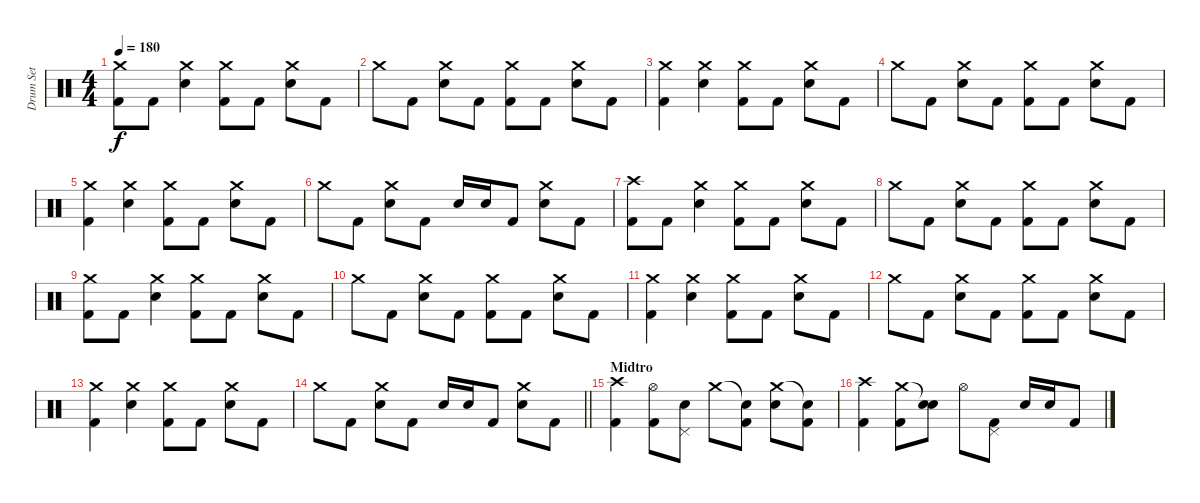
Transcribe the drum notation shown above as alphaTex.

\track ("Drum Set" "Drum Set") {instrument percussion}
\staff {score}
\articulation defaults
\ts (4 4)
\tempo 180
\clef neutral
\ks c
("Crash medium (hit)" "Kick (hit) 2").8{dy f} "Kick (hit) 2".8 ("Crash medium (hit)" "Electric Snare (hit)").4 ("Crash medium (hit)" "Kick (hit) 2").8 "Kick (hit) 2".8 ("Crash medium (hit)" "Electric Snare (hit)").8 "Kick (hit) 2".8 |
"Crash medium (hit)".8 "Kick (hit) 2".8 ("Crash medium (hit)" "Electric Snare (hit)").8 "Kick (hit) 2".8 ("Crash medium (hit)" "Kick (hit) 2").8 "Kick (hit) 2".8 ("Crash medium (hit)" "Electric Snare (hit)").8 "Kick (hit) 2".8 |
("Crash medium (hit)" "Kick (hit) 2").4 ("Crash medium (hit)" "Electric Snare (hit)").4 ("Crash medium (hit)" "Kick (hit) 2").8 "Kick (hit) 2".8 ("Crash medium (hit)" "Electric Snare (hit)").8 "Kick (hit) 2".8 |
"Crash medium (hit)".8 "Kick (hit) 2".8 ("Crash medium (hit)" "Electric Snare (hit)").8 "Kick (hit) 2".8 ("Crash medium (hit)" "Kick (hit) 2").8 "Kick (hit) 2".8 ("Crash medium (hit)" "Electric Snare (hit)").8 "Kick (hit) 2".8 |
("Crash medium (hit)" "Kick (hit) 2").4 ("Crash medium (hit)" "Electric Snare (hit)").4 ("Crash medium (hit)" "Kick (hit) 2").8 "Kick (hit) 2".8 ("Crash medium (hit)" "Electric Snare (hit)").8 "Kick (hit) 2".8 |
"Crash medium (hit)".8 "Kick (hit) 2".8 ("Crash medium (hit)" "Electric Snare (hit)").8 "Kick (hit) 2".8 "Electric Snare (hit)".16 "Electric Snare (hit)".16 "Kick (hit) 2".8 ("Crash medium (hit)" "Electric Snare (hit)").8 "Kick (hit) 2".8 |
("Crash high (hit)" "Kick (hit) 2").8 "Kick (hit) 2".8 ("Crash medium (hit)" "Electric Snare (hit)").4 ("Crash medium (hit)" "Kick (hit) 2").8 "Kick (hit) 2".8 ("Crash medium (hit)" "Electric Snare (hit)").8 "Kick (hit) 2".8 |
"Crash medium (hit)".8 "Kick (hit) 2".8 ("Crash medium (hit)" "Electric Snare (hit)").8 "Kick (hit) 2".8 ("Crash medium (hit)" "Kick (hit) 2").8 "Kick (hit) 2".8 ("Crash medium (hit)" "Electric Snare (hit)").8 "Kick (hit) 2".8 |
("Crash medium (hit)" "Kick (hit) 2").8 "Kick (hit) 2".8 ("Crash medium (hit)" "Electric Snare (hit)").4 ("Crash medium (hit)" "Kick (hit) 2").8 "Kick (hit) 2".8 ("Crash medium (hit)" "Electric Snare (hit)").8 "Kick (hit) 2".8 |
"Crash medium (hit)".8 "Kick (hit) 2".8 ("Crash medium (hit)" "Electric Snare (hit)").8 "Kick (hit) 2".8 ("Crash medium (hit)" "Kick (hit) 2").8 "Kick (hit) 2".8 ("Crash medium (hit)" "Electric Snare (hit)").8 "Kick (hit) 2".8 |
("Crash medium (hit)" "Kick (hit) 2").4 ("Crash medium (hit)" "Electric Snare (hit)").4 ("Crash medium (hit)" "Kick (hit) 2").8 "Kick (hit) 2".8 ("Crash medium (hit)" "Electric Snare (hit)").8 "Kick (hit) 2".8 |
"Crash medium (hit)".8 "Kick (hit) 2".8 ("Crash medium (hit)" "Electric Snare (hit)").8 "Kick (hit) 2".8 ("Crash medium (hit)" "Kick (hit) 2").8 "Kick (hit) 2".8 ("Crash medium (hit)" "Electric Snare (hit)").8 "Kick (hit) 2".8 |
("Crash medium (hit)" "Kick (hit) 2").4 ("Crash medium (hit)" "Electric Snare (hit)").4 ("Crash medium (hit)" "Kick (hit) 2").8 "Kick (hit) 2".8 ("Crash medium (hit)" "Electric Snare (hit)").8 "Kick (hit) 2".8 |
\barLineRight lightlight "Crash medium (hit)".8 "Kick (hit) 2".8
("Crash medium (hit)" "Electric Snare (hit)").8 "Kick (hit) 2".8 "Electric Snare (hit)".16 "Electric Snare (hit)".16 "Kick (hit) 2".8 ("Crash medium (hit)" "Electric Snare (hit)").8 "Kick (hit) 2".8 |
\section ("" "Midtro")
("Crash high (hit)" "Kick (hit) 2").4 ("Hi-Hat (open)" "Kick (hit) 2").8 ("Pedal Hi-Hat (hit)" "Electric Snare (hit)").8 "Crash medium (hit)".8 ("Snare (hit)"{t} "Kick (hit) 2").8 ("Crash medium (hit)" "Electric Snare (hit)").8 ("Snare (hit)"{t} "Kick (hit) 2").8 |
("Crash high (hit)" "Kick (hit) 2").4 ("Crash medium (hit)" "Kick (hit) 2").8 ("Electric Snare (hit)"{t} "Electric Snare (hit)").8 "Hi-Hat (open)".8 ("Pedal Hi-Hat (hit)" "Kick (hit) 2").8 "Electric Snare (hit)".16 "Electric Snare (hit)".16 "Kick (hit) 2".8
